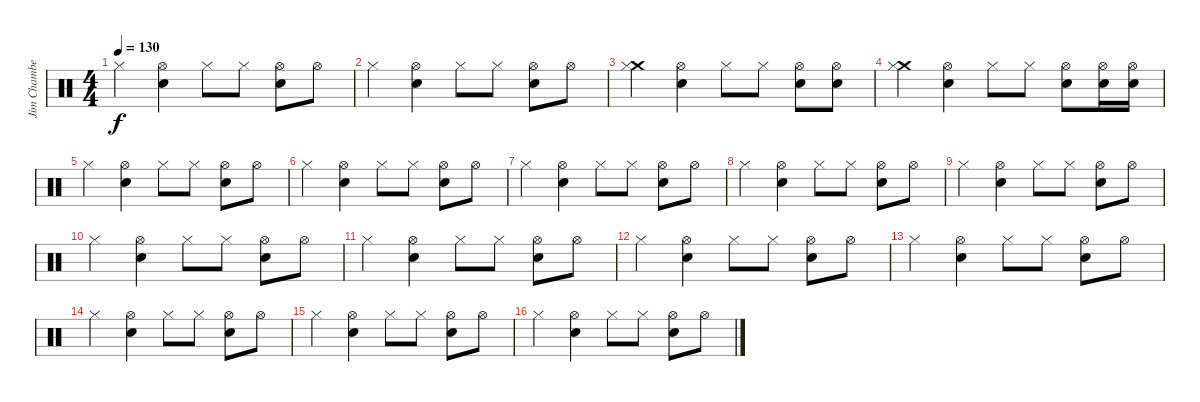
\track ("Jim Chamberlin (Drums)" "Jim Chambe") {instrument percussion}
\staff {score}
\articulation defaults
\ts (4 4)
\tempo 130
\clef neutral
\ks c "Hi-Hat (closed)".4{dy f}
("Snare (hit) 2" "Hi-Hat (open)").4 "Hi-Hat (closed)".8 "Hi-Hat (closed)".8 ("Snare (hit) 2" "Hi-Hat (open)").8 "Hi-Hat (open)".8 |
"Hi-Hat (closed)".4 ("Snare (hit) 2" "Hi-Hat (open)").4 "Hi-Hat (closed)".8 "Hi-Hat (closed)".8 ("Snare (hit) 2" "Hi-Hat (open)").8 "Hi-Hat (open)".8 |
("Crash medium (hit)" "Hi-Hat (closed)").4 ("Snare (hit) 2" "Hi-Hat (open)").4 "Hi-Hat (closed)".8 "Hi-Hat (closed)".8 ("Snare (hit) 2" "Hi-Hat (open)").8 ("Snare (hit) 2" "Hi-Hat (open)").8 |
("Crash medium (hit)" "Hi-Hat (closed)").4 ("Snare (hit) 2" "Hi-Hat (open)").4 "Hi-Hat (closed)".8 "Hi-Hat (closed)".8 ("Snare (hit) 2" "Hi-Hat (open)").8 ("Snare (hit) 2" "Hi-Hat (open)").16 ("Snare (hit) 2" "Hi-Hat (open)").16 |
"Hi-Hat (closed)".4 ("Snare (hit) 2" "Hi-Hat (open)").4 "Hi-Hat (closed)".8 "Hi-Hat (closed)".8 ("Snare (hit) 2" "Hi-Hat (open)").8 "Hi-Hat (open)".8 |
"Hi-Hat (closed)".4 ("Snare (hit) 2" "Hi-Hat (open)").4 "Hi-Hat (closed)".8 "Hi-Hat (closed)".8 ("Snare (hit) 2" "Hi-Hat (open)").8 "Hi-Hat (open)".8 |
"Hi-Hat (closed)".4 ("Snare (hit) 2" "Hi-Hat (open)").4 "Hi-Hat (closed)".8 "Hi-Hat (closed)".8 ("Snare (hit) 2" "Hi-Hat (open)").8 "Hi-Hat (open)".8 |
"Hi-Hat (closed)".4 ("Snare (hit) 2" "Hi-Hat (open)").4 "Hi-Hat (closed)".8 "Hi-Hat (closed)".8 ("Snare (hit) 2" "Hi-Hat (open)").8 "Hi-Hat (open)".8 |
"Hi-Hat (closed)".4 ("Snare (hit) 2" "Hi-Hat (open)").4 "Hi-Hat (closed)".8 "Hi-Hat (closed)".8 ("Snare (hit) 2" "Hi-Hat (open)").8 "Hi-Hat (open)".8 |
"Hi-Hat (closed)".4 ("Snare (hit) 2" "Hi-Hat (open)").4 "Hi-Hat (closed)".8 "Hi-Hat (closed)".8 ("Snare (hit) 2" "Hi-Hat (open)").8 "Hi-Hat (open)".8 |
"Hi-Hat (closed)".4 ("Snare (hit) 2" "Hi-Hat (open)").4 "Hi-Hat (closed)".8 "Hi-Hat (closed)".8 ("Snare (hit) 2" "Hi-Hat (open)").8 "Hi-Hat (open)".8 |
"Hi-Hat (closed)".4 ("Snare (hit) 2" "Hi-Hat (open)").4 "Hi-Hat (closed)".8 "Hi-Hat (closed)".8 ("Snare (hit) 2" "Hi-Hat (open)").8 "Hi-Hat (open)".8 |
"Hi-Hat (closed)".4 ("Snare (hit) 2" "Hi-Hat (open)").4 "Hi-Hat (closed)".8 "Hi-Hat (closed)".8 ("Snare (hit) 2" "Hi-Hat (open)").8 "Hi-Hat (open)".8 |
"Hi-Hat (closed)".4 ("Snare (hit) 2" "Hi-Hat (open)").4 "Hi-Hat (closed)".8 "Hi-Hat (closed)".8 ("Snare (hit) 2" "Hi-Hat (open)").8 "Hi-Hat (open)".8 |
"Hi-Hat (closed)".4 ("Snare (hit) 2" "Hi-Hat (open)").4 "Hi-Hat (closed)".8 "Hi-Hat (closed)".8 ("Snare (hit) 2" "Hi-Hat (open)").8 "Hi-Hat (open)".8 |
"Hi-Hat (closed)".4 ("Snare (hit) 2" "Hi-Hat (open)").4 "Hi-Hat (closed)".8 "Hi-Hat (closed)".8 ("Snare (hit) 2" "Hi-Hat (open)").8 "Hi-Hat (open)".8
